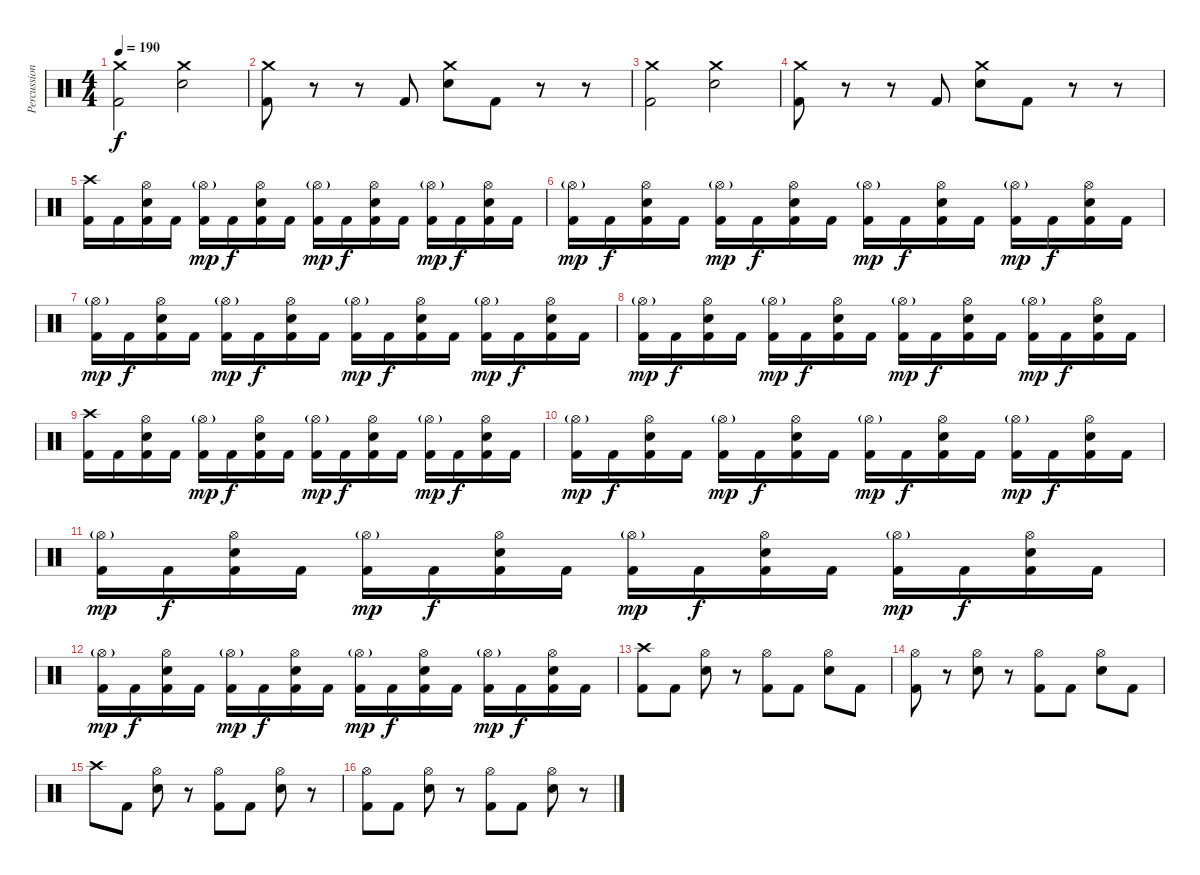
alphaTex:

\track ("Percussion" "Percussion") {instrument percussion}
\staff {score}
\articulation defaults
\ts (4 4)
\tempo 190
\clef neutral
\ks c
("Crash medium (hit)" "Kick (hit) 2").2{dy f} ("Crash medium (hit)" "Electric Snare (hit)").2 |
("Crash medium (hit)" "Kick (hit) 2").8 r.8 r.8 "Kick (hit) 2".8 ("Crash medium (hit)" "Electric Snare (hit)").8 "Kick (hit) 2".8 r.8 r.8 |
("Crash medium (hit)" "Kick (hit) 2").2 ("Crash medium (hit)" "Electric Snare (hit)").2 |
("Crash medium (hit)" "Kick (hit) 2").8 r.8 r.8 "Kick (hit) 2".8 ("Crash medium (hit)" "Electric Snare (hit)").8 "Kick (hit) 2".8 r.8 r.8 |
("Crash high (hit)" "Kick (hit) 2").16 "Kick (hit) 2".16 ("Hi-Hat (open)" "Electric Snare (hit)" "Kick (hit) 2").16 "Kick (hit) 2".16 ("Hi-Hat (open)"{g} "Kick (hit) 2").16{dy mp} "Kick (hit) 2".16{dy f} ("Hi-Hat (open)" "Electric Snare (hit)" "Kick (hit) 2").16 "Kick (hit) 2".16 ("Hi-Hat (open)"{g} "Kick (hit) 2").16{dy mp} "Kick (hit) 2".16{dy f} ("Hi-Hat (open)" "Electric Snare (hit)" "Kick (hit) 2").16 "Kick (hit) 2".16 ("Hi-Hat (open)"{g} "Kick (hit) 2").16{dy mp} "Kick (hit) 2".16{dy f} ("Hi-Hat (open)" "Electric Snare (hit)" "Kick (hit) 2").16 "Kick (hit) 2".16 |
("Hi-Hat (open)"{g} "Kick (hit) 2").16{dy mp} "Kick (hit) 2".16{dy f} ("Hi-Hat (open)" "Electric Snare (hit)" "Kick (hit) 2").16 "Kick (hit) 2".16 ("Hi-Hat (open)"{g} "Kick (hit) 2").16{dy mp} "Kick (hit) 2".16{dy f} ("Hi-Hat (open)" "Electric Snare (hit)" "Kick (hit) 2").16 "Kick (hit) 2".16 ("Hi-Hat (open)"{g} "Kick (hit) 2").16{dy mp} "Kick (hit) 2".16{dy f} ("Hi-Hat (open)" "Electric Snare (hit)" "Kick (hit) 2").16 "Kick (hit) 2".16 ("Hi-Hat (open)"{g} "Kick (hit) 2").16{dy mp} "Kick (hit) 2".16{dy f} ("Hi-Hat (open)" "Electric Snare (hit)" "Kick (hit) 2").16 "Kick (hit) 2".16 |
("Hi-Hat (open)"{g} "Kick (hit) 2").16{dy mp} "Kick (hit) 2".16{dy f} ("Hi-Hat (open)" "Electric Snare (hit)" "Kick (hit) 2").16 "Kick (hit) 2".16 ("Hi-Hat (open)"{g} "Kick (hit) 2").16{dy mp} "Kick (hit) 2".16{dy f} ("Hi-Hat (open)" "Electric Snare (hit)" "Kick (hit) 2").16 "Kick (hit) 2".16 ("Hi-Hat (open)"{g} "Kick (hit) 2").16{dy mp} "Kick (hit) 2".16{dy f} ("Hi-Hat (open)" "Electric Snare (hit)" "Kick (hit) 2").16 "Kick (hit) 2".16 ("Hi-Hat (open)"{g} "Kick (hit) 2").16{dy mp} "Kick (hit) 2".16{dy f} ("Hi-Hat (open)" "Electric Snare (hit)" "Kick (hit) 2").16 "Kick (hit) 2".16 |
("Hi-Hat (open)"{g} "Kick (hit) 2").16{dy mp} "Kick (hit) 2".16{dy f} ("Hi-Hat (open)" "Electric Snare (hit)" "Kick (hit) 2").16 "Kick (hit) 2".16 ("Hi-Hat (open)"{g} "Kick (hit) 2").16{dy mp} "Kick (hit) 2".16{dy f} ("Hi-Hat (open)" "Electric Snare (hit)" "Kick (hit) 2").16 "Kick (hit) 2".16 ("Hi-Hat (open)"{g} "Kick (hit) 2").16{dy mp} "Kick (hit) 2".16{dy f} ("Hi-Hat (open)" "Electric Snare (hit)" "Kick (hit) 2").16 "Kick (hit) 2".16 ("Hi-Hat (open)"{g} "Kick (hit) 2").16{dy mp} "Kick (hit) 2".16{dy f} ("Hi-Hat (open)" "Electric Snare (hit)" "Kick (hit) 2").16 "Kick (hit) 2".16 |
("Crash high (hit)" "Kick (hit) 2").16 "Kick (hit) 2".16 ("Hi-Hat (open)" "Electric Snare (hit)" "Kick (hit) 2").16 "Kick (hit) 2".16 ("Hi-Hat (open)"{g} "Kick (hit) 2").16{dy mp} "Kick (hit) 2".16{dy f} ("Hi-Hat (open)" "Electric Snare (hit)" "Kick (hit) 2").16 "Kick (hit) 2".16 ("Hi-Hat (open)"{g} "Kick (hit) 2").16{dy mp} "Kick (hit) 2".16{dy f} ("Hi-Hat (open)" "Electric Snare (hit)" "Kick (hit) 2").16 "Kick (hit) 2".16 ("Hi-Hat (open)"{g} "Kick (hit) 2").16{dy mp} "Kick (hit) 2".16{dy f} ("Hi-Hat (open)" "Electric Snare (hit)" "Kick (hit) 2").16 "Kick (hit) 2".16 |
("Hi-Hat (open)"{g} "Kick (hit) 2").16{dy mp} "Kick (hit) 2".16{dy f} ("Hi-Hat (open)" "Electric Snare (hit)" "Kick (hit) 2").16 "Kick (hit) 2".16 ("Hi-Hat (open)"{g} "Kick (hit) 2").16{dy mp} "Kick (hit) 2".16{dy f} ("Hi-Hat (open)" "Electric Snare (hit)" "Kick (hit) 2").16 "Kick (hit) 2".16 ("Hi-Hat (open)"{g} "Kick (hit) 2").16{dy mp} "Kick (hit) 2".16{dy f} ("Hi-Hat (open)" "Electric Snare (hit)" "Kick (hit) 2").16 "Kick (hit) 2".16 ("Hi-Hat (open)"{g} "Kick (hit) 2").16{dy mp} "Kick (hit) 2".16{dy f} ("Hi-Hat (open)" "Electric Snare (hit)" "Kick (hit) 2").16 "Kick (hit) 2".16 |
("Hi-Hat (open)"{g} "Kick (hit) 2").16{dy mp} "Kick (hit) 2".16{dy f} ("Hi-Hat (open)" "Electric Snare (hit)" "Kick (hit) 2").16 "Kick (hit) 2".16 ("Hi-Hat (open)"{g} "Kick (hit) 2").16{dy mp} "Kick (hit) 2".16{dy f} ("Hi-Hat (open)" "Electric Snare (hit)" "Kick (hit) 2").16 "Kick (hit) 2".16 ("Hi-Hat (open)"{g} "Kick (hit) 2").16{dy mp} "Kick (hit) 2".16{dy f} ("Hi-Hat (open)" "Electric Snare (hit)" "Kick (hit) 2").16 "Kick (hit) 2".16 ("Hi-Hat (open)"{g} "Kick (hit) 2").16{dy mp} "Kick (hit) 2".16{dy f} ("Hi-Hat (open)" "Electric Snare (hit)" "Kick (hit) 2").16 "Kick (hit) 2".16 |
("Hi-Hat (open)"{g} "Kick (hit) 2").16{dy mp} "Kick (hit) 2".16{dy f} ("Hi-Hat (open)" "Electric Snare (hit)" "Kick (hit) 2").16 "Kick (hit) 2".16 ("Hi-Hat (open)"{g} "Kick (hit) 2").16{dy mp} "Kick (hit) 2".16{dy f} ("Hi-Hat (open)" "Electric Snare (hit)" "Kick (hit) 2").16 "Kick (hit) 2".16 ("Hi-Hat (open)"{g} "Kick (hit) 2").16{dy mp} "Kick (hit) 2".16{dy f} ("Hi-Hat (open)" "Electric Snare (hit)" "Kick (hit) 2").16 "Kick (hit) 2".16 ("Hi-Hat (open)"{g} "Kick (hit) 2").16{dy mp} "Kick (hit) 2".16{dy f} ("Hi-Hat (open)" "Electric Snare (hit)" "Kick (hit) 2").16 "Kick (hit) 2".16 |
("Crash high (hit)" "Kick (hit) 2").8 "Kick (hit) 2".8 ("Hi-Hat (open)" "Electric Snare (hit)").8 r.8 ("Hi-Hat (open)" "Kick (hit) 2").8 "Kick (hit) 2".8 ("Hi-Hat (open)" "Electric Snare (hit)").8 "Kick (hit) 2".8 |
("Hi-Hat (open)" "Kick (hit) 2").8 r.8 ("Hi-Hat (open)" "Electric Snare (hit)").8 r.8 ("Hi-Hat (open)" "Kick (hit) 2").8 "Kick (hit) 2".8 ("Hi-Hat (open)" "Electric Snare (hit)").8 "Kick (hit) 2".8 |
"Crash high (hit)".8 "Kick (hit) 2".8 ("Hi-Hat (open)" "Electric Snare (hit)").8 r.8 ("Hi-Hat (open)" "Kick (hit) 2").8 "Kick (hit) 2".8 ("Hi-Hat (open)" "Electric Snare (hit)").8 r.8 |
("Hi-Hat (open)" "Kick (hit) 2").8 "Kick (hit) 2".8 ("Hi-Hat (open)" "Electric Snare (hit)").8 r.8 ("Hi-Hat (open)" "Kick (hit) 2").8 "Kick (hit) 2".8 ("Hi-Hat (open)" "Electric Snare (hit)").8 r.8
